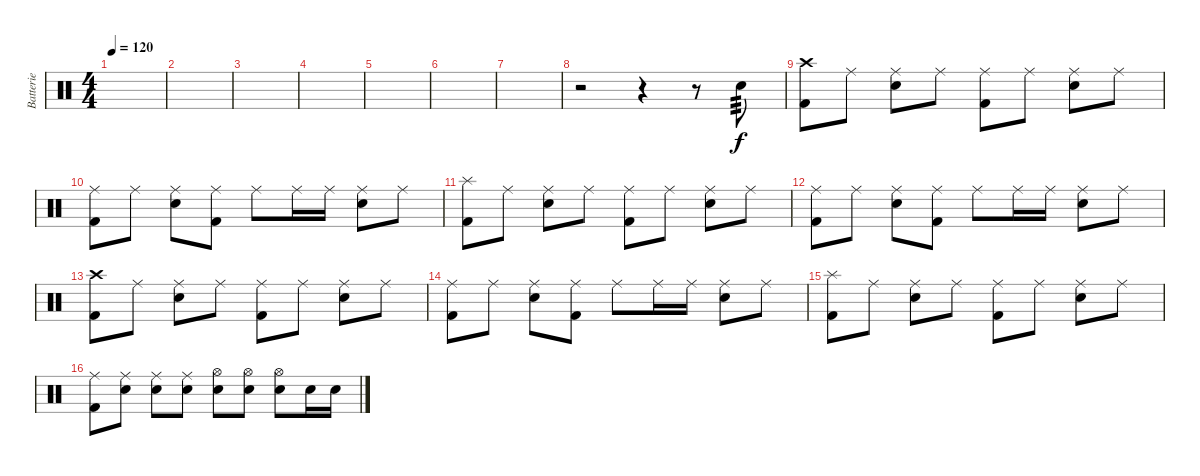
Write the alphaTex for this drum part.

\track ("Batterie" "Batterie") {instrument percussion}
\staff {score}
\articulation defaults
\ts (4 4)
\tempo 120
\clef neutral
\ks c
|
|
|
|
|
|
|
r.2 r.4 r.8 "Electric Snare (hit)".8{tp 3} |
("Crash high (hit)" "Kick (hit) 2").8 "Ride (middle)".8 ("Ride (middle)" "Electric Snare (hit)").8 "Ride (middle)".8 ("Ride (middle)" "Kick (hit) 2").8 "Ride (middle)".8 ("Ride (middle)" "Electric Snare (hit)").8 "Ride (middle)".8 |
("Ride (middle)" "Kick (hit) 2").8 "Ride (middle)".8 ("Ride (middle)" "Electric Snare (hit)").8 ("Ride (middle)" "Kick (hit) 2").8 "Ride (middle)".8 "Ride (middle)".16 "Ride (middle)".16 ("Ride (middle)" "Electric Snare (hit)").8 "Ride (middle)".8 |
("Splash (hit)" "Kick (hit) 2").8 "Ride (middle)".8 ("Ride (middle)" "Electric Snare (hit)").8 "Ride (middle)".8 ("Ride (middle)" "Kick (hit) 2").8 "Ride (middle)".8 ("Ride (middle)" "Electric Snare (hit)").8 "Ride (middle)".8 |
("Ride (middle)" "Kick (hit) 2").8 "Ride (middle)".8 ("Ride (middle)" "Electric Snare (hit)").8 ("Ride (middle)" "Kick (hit) 2").8 "Ride (middle)".8 "Ride (middle)".16 "Ride (middle)".16 ("Ride (middle)" "Electric Snare (hit)").8 "Ride (middle)".8 |
("Crash high (hit)" "Kick (hit) 2").8 "Ride (middle)".8 ("Ride (middle)" "Electric Snare (hit)").8 "Ride (middle)".8 ("Ride (middle)" "Kick (hit) 2").8 "Ride (middle)".8 ("Ride (middle)" "Electric Snare (hit)").8 "Ride (middle)".8 |
("Ride (middle)" "Kick (hit) 2").8 "Ride (middle)".8 ("Ride (middle)" "Electric Snare (hit)").8 ("Ride (middle)" "Kick (hit) 2").8 "Ride (middle)".8 "Ride (middle)".16 "Ride (middle)".16 ("Ride (middle)" "Electric Snare (hit)").8 "Ride (middle)".8 |
("Splash (hit)" "Kick (hit) 2").8 "Ride (middle)".8 ("Ride (middle)" "Electric Snare (hit)").8 "Ride (middle)".8 ("Ride (middle)" "Kick (hit) 2").8 "Ride (middle)".8 ("Ride (middle)" "Electric Snare (hit)").8 "Ride (middle)".8 |
("Ride (middle)" "Kick (hit) 2").8 ("Ride (middle)" "Electric Snare (hit)").8 ("Ride (middle)" "Electric Snare (hit)").8 ("Ride (middle)" "Electric Snare (hit)").8 ("Hi-Hat (open)" "Electric Snare (hit)").8 ("Hi-Hat (open)" "Electric Snare (hit)").8 ("Hi-Hat (open)" "Electric Snare (hit)").8 "Electric Snare (hit)".16 "Electric Snare (hit)".16
